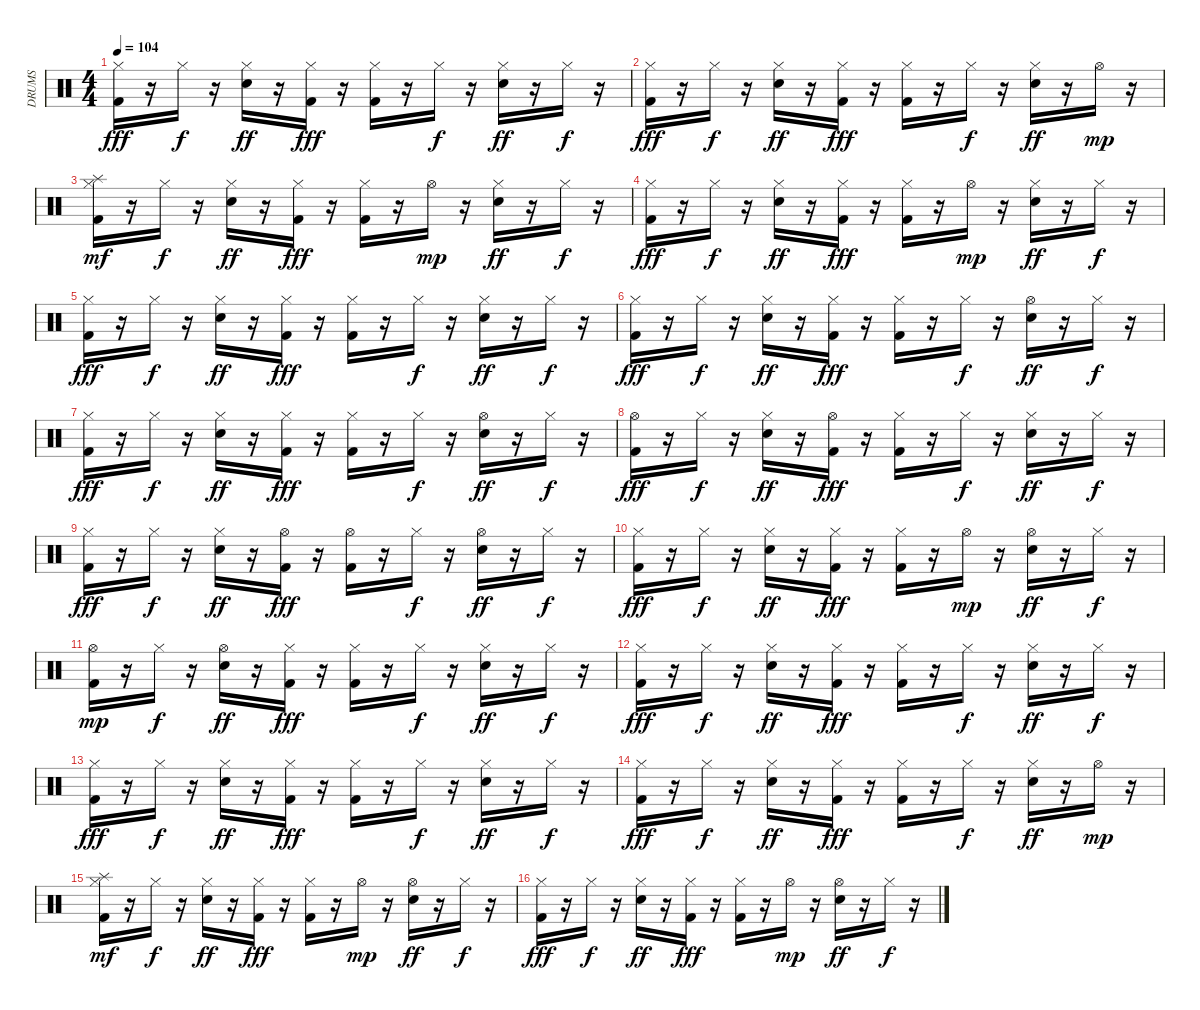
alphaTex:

\track ("DRUMS" "DRUMS") {instrument percussion}
\staff {score}
\articulation defaults
\ts (4 4)
\tempo 104
\clef neutral
\ks c
("Kick (hit) 2" "Hi-Hat (closed)").16{dy fff} r.16 "Hi-Hat (closed)".16{dy f} r.16 ("Hi-Hat (closed)" "Snare (hit) 2").16{dy ff} r.16 ("Hi-Hat (closed)" "Kick (hit) 2").16{dy fff} r.16 ("Hi-Hat (closed)" "Kick (hit) 2").16 r.16 "Hi-Hat (closed)".16{dy f} r.16 ("Hi-Hat (closed)" "Snare (hit) 2").16{dy ff} r.16 "Hi-Hat (closed)".16{dy f} r.16 |
("Hi-Hat (closed)" "Kick (hit) 2").16{dy fff} r.16 "Hi-Hat (closed)".16{dy f} r.16 ("Hi-Hat (closed)" "Snare (hit) 2").16{dy ff} r.16 ("Hi-Hat (closed)" "Kick (hit) 2").16{dy fff} r.16 ("Hi-Hat (closed)" "Kick (hit) 2").16 r.16 "Hi-Hat (closed)".16{dy f} r.16 ("Hi-Hat (closed)" "Snare (hit) 2").16{dy ff} r.16 "Hi-Hat (open)".16{dy mp} r.16 |
("Kick (hit) 2" "Splash (hit)" "Hi-Hat (closed)").16{dy mf} r.16 "Hi-Hat (closed)".16{dy f} r.16 ("Hi-Hat (closed)" "Snare (hit) 2").16{dy ff} r.16 ("Hi-Hat (closed)" "Kick (hit) 2").16{dy fff} r.16 ("Hi-Hat (closed)" "Kick (hit) 2").16 r.16 "Hi-Hat (open)".16{dy mp} r.16 ("Hi-Hat (closed)" "Snare (hit) 2").16{dy ff} r.16 "Hi-Hat (closed)".16{dy f} r.16 |
("Hi-Hat (closed)" "Kick (hit) 2").16{dy fff} r.16 "Hi-Hat (closed)".16{dy f} r.16 ("Hi-Hat (closed)" "Snare (hit) 2").16{dy ff} r.16 ("Hi-Hat (closed)" "Kick (hit) 2").16{dy fff} r.16 ("Hi-Hat (closed)" "Kick (hit) 2").16 r.16 "Hi-Hat (open)".16{dy mp} r.16 ("Hi-Hat (closed)" "Snare (hit) 2").16{dy ff} r.16 "Hi-Hat (closed)".16{dy f} r.16 |
("Kick (hit) 2" "Hi-Hat (closed)").16{dy fff} r.16 "Hi-Hat (closed)".16{dy f} r.16 ("Hi-Hat (closed)" "Snare (hit) 2").16{dy ff} r.16 ("Hi-Hat (closed)" "Kick (hit) 2").16{dy fff} r.16 ("Hi-Hat (closed)" "Kick (hit) 2").16 r.16 "Hi-Hat (closed)".16{dy f} r.16 ("Hi-Hat (closed)" "Snare (hit) 2").16{dy ff} r.16 "Hi-Hat (closed)".16{dy f} r.16 |
("Hi-Hat (closed)" "Kick (hit) 2").16{dy fff} r.16 "Hi-Hat (closed)".16{dy f} r.16 ("Hi-Hat (closed)" "Snare (hit) 2").16{dy ff} r.16 ("Hi-Hat (closed)" "Kick (hit) 2").16{dy fff} r.16 ("Hi-Hat (closed)" "Kick (hit) 2").16 r.16 "Hi-Hat (closed)".16{dy f} r.16 ("Hi-Hat (open)" "Snare (hit) 2").16{dy ff} r.16 "Hi-Hat (closed)".16{dy f} r.16 |
("Kick (hit) 2" "Hi-Hat (closed)").16{dy fff} r.16 "Hi-Hat (closed)".16{dy f} r.16 ("Hi-Hat (closed)" "Snare (hit) 2").16{dy ff} r.16 ("Hi-Hat (closed)" "Kick (hit) 2").16{dy fff} r.16 ("Hi-Hat (closed)" "Kick (hit) 2").16 r.16 "Hi-Hat (closed)".16{dy f} r.16 ("Hi-Hat (open)" "Snare (hit) 2").16{dy ff} r.16 "Hi-Hat (closed)".16{dy f} r.16 |
("Hi-Hat (open)" "Kick (hit) 2").16{dy fff} r.16 "Hi-Hat (closed)".16{dy f} r.16 ("Hi-Hat (closed)" "Snare (hit) 2").16{dy ff} r.16 ("Hi-Hat (open)" "Kick (hit) 2").16{dy fff} r.16 ("Hi-Hat (closed)" "Kick (hit) 2").16 r.16 "Hi-Hat (closed)".16{dy f} r.16 ("Hi-Hat (closed)" "Snare (hit) 2").16{dy ff} r.16 "Hi-Hat (closed)".16{dy f} r.16 |
("Kick (hit) 2" "Hi-Hat (closed)").16{dy fff} r.16 "Hi-Hat (closed)".16{dy f} r.16 ("Hi-Hat (closed)" "Snare (hit) 2").16{dy ff} r.16 ("Hi-Hat (open)" "Kick (hit) 2").16{dy fff} r.16 ("Hi-Hat (open)" "Kick (hit) 2").16 r.16 "Hi-Hat (closed)".16{dy f} r.16 ("Hi-Hat (open)" "Snare (hit) 2").16{dy ff} r.16 "Hi-Hat (closed)".16{dy f} r.16 |
("Hi-Hat (closed)" "Kick (hit) 2").16{dy fff} r.16 "Hi-Hat (closed)".16{dy f} r.16 ("Hi-Hat (closed)" "Snare (hit) 2").16{dy ff} r.16 ("Hi-Hat (closed)" "Kick (hit) 2").16{dy fff} r.16 ("Hi-Hat (closed)" "Kick (hit) 2").16 r.16 "Hi-Hat (open)".16{dy mp} r.16 ("Hi-Hat (open)" "Snare (hit) 2").16{dy ff} r.16 "Hi-Hat (closed)".16{dy f} r.16 |
("Kick (hit) 2" "Hi-Hat (open)").16{dy mp} r.16 "Hi-Hat (closed)".16{dy f} r.16 ("Hi-Hat (open)" "Snare (hit) 2").16{dy ff} r.16 ("Hi-Hat (closed)" "Kick (hit) 2").16{dy fff} r.16 ("Hi-Hat (closed)" "Kick (hit) 2").16 r.16 "Hi-Hat (closed)".16{dy f} r.16 ("Hi-Hat (closed)" "Snare (hit) 2").16{dy ff} r.16 "Hi-Hat (closed)".16{dy f} r.16 |
("Hi-Hat (closed)" "Kick (hit) 2").16{dy fff} r.16 "Hi-Hat (closed)".16{dy f} r.16 ("Hi-Hat (closed)" "Snare (hit) 2").16{dy ff} r.16 ("Hi-Hat (closed)" "Kick (hit) 2").16{dy fff} r.16 ("Hi-Hat (closed)" "Kick (hit) 2").16 r.16 "Hi-Hat (closed)".16{dy f} r.16 ("Hi-Hat (closed)" "Snare (hit) 2").16{dy ff} r.16 "Hi-Hat (closed)".16{dy f} r.16 |
("Kick (hit) 2" "Hi-Hat (closed)").16{dy fff} r.16 "Hi-Hat (closed)".16{dy f} r.16 ("Hi-Hat (closed)" "Snare (hit) 2").16{dy ff} r.16 ("Hi-Hat (closed)" "Kick (hit) 2").16{dy fff} r.16 ("Hi-Hat (closed)" "Kick (hit) 2").16 r.16 "Hi-Hat (closed)".16{dy f} r.16 ("Hi-Hat (closed)" "Snare (hit) 2").16{dy ff} r.16 "Hi-Hat (closed)".16{dy f} r.16 |
("Hi-Hat (closed)" "Kick (hit) 2").16{dy fff} r.16 "Hi-Hat (closed)".16{dy f} r.16 ("Hi-Hat (closed)" "Snare (hit) 2").16{dy ff} r.16 ("Hi-Hat (closed)" "Kick (hit) 2").16{dy fff} r.16 ("Hi-Hat (closed)" "Kick (hit) 2").16 r.16 "Hi-Hat (closed)".16{dy f} r.16 ("Hi-Hat (closed)" "Snare (hit) 2").16{dy ff} r.16 "Hi-Hat (open)".16{dy mp} r.16 |
("Kick (hit) 2" "Hi-Hat (closed)" "Splash (hit)").16{dy mf} r.16 "Hi-Hat (closed)".16{dy f} r.16 ("Hi-Hat (closed)" "Snare (hit) 2").16{dy ff} r.16 ("Hi-Hat (closed)" "Kick (hit) 2").16{dy fff} r.16 ("Hi-Hat (closed)" "Kick (hit) 2").16 r.16 "Hi-Hat (open)".16{dy mp} r.16 ("Hi-Hat (open)" "Snare (hit) 2").16{dy ff} r.16 "Hi-Hat (closed)".16{dy f} r.16 |
("Hi-Hat (closed)" "Kick (hit) 2").16{dy fff} r.16 "Hi-Hat (closed)".16{dy f} r.16 ("Hi-Hat (closed)" "Snare (hit) 2").16{dy ff} r.16 ("Hi-Hat (closed)" "Kick (hit) 2").16{dy fff} r.16 ("Hi-Hat (closed)" "Kick (hit) 2").16 r.16 "Hi-Hat (open)".16{dy mp} r.16 ("Hi-Hat (open)" "Snare (hit) 2").16{dy ff} r.16 "Hi-Hat (closed)".16{dy f} r.16
